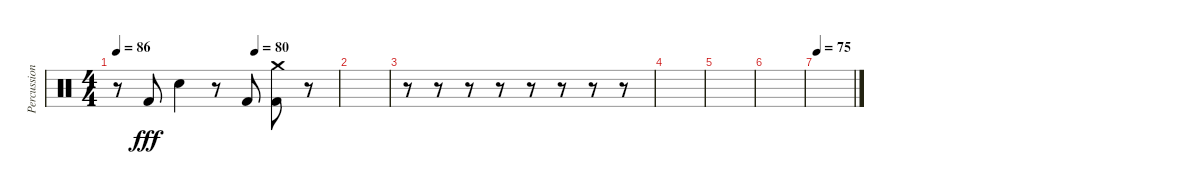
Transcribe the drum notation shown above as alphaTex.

\track ("Percussion" "Percussion") {instrument percussion}
\staff {score}
\articulation defaults
\ts (4 4)
\tempo 86
\tempo (80 0.625)
\clef neutral
\ks c
r.8{dy fff} "Kick (hit) 2".8 "Electric Snare (hit)".4 r.8 "Kick (hit) 2".8 ("Kick (hit) 2" "Crash medium (hit)").8 r.8 |
|
r.8 r.8 r.8 r.8 r.8 r.8 r.8 r.8 |
|
|
|
\tempo 75
